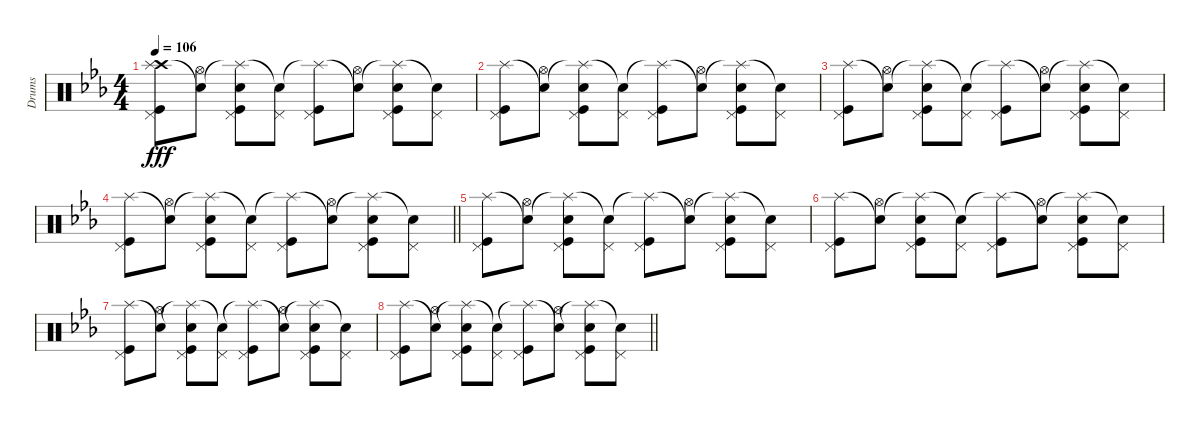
\track ("Drums" "Drums") {instrument percussion}
\staff {score}
\articulation defaults
\ts (4 4)
\tempo 106
\clef neutral
\ks eb
("Crash high (hit)" "Splash (hit)" "Pedal Hi-Hat (hit)" "Kick (hit)").8{dy fff} ("Snare (hit)"{t} "Hi-Hat (open)").8 ("Splash (hit)"{t} "Pedal Hi-Hat (hit)" "Snare (hit) 2" "Kick (hit)").8 ("Snare (hit)"{t} "Pedal Hi-Hat (hit)").8 ("Splash (hit)"{t} "Pedal Hi-Hat (hit)" "Kick (hit)").8 ("Snare (hit)"{t} "Hi-Hat (open)").8 ("Splash (hit)"{t} "Pedal Hi-Hat (hit)" "Snare (hit) 2" "Kick (hit)").8 ("Snare (hit)"{t} "Pedal Hi-Hat (hit)").8 |
("Splash (hit)" "Pedal Hi-Hat (hit)" "Kick (hit)").8 ("Snare (hit)"{t} "Hi-Hat (open)").8 ("Splash (hit)"{t} "Pedal Hi-Hat (hit)" "Snare (hit) 2" "Kick (hit)").8 ("Snare (hit)"{t} "Pedal Hi-Hat (hit)").8 ("Splash (hit)"{t} "Pedal Hi-Hat (hit)" "Kick (hit)").8 ("Snare (hit)"{t} "Hi-Hat (open)").8 ("Splash (hit)"{t} "Pedal Hi-Hat (hit)" "Snare (hit) 2" "Kick (hit)").8 ("Snare (hit)"{t} "Pedal Hi-Hat (hit)").8 |
("Splash (hit)" "Pedal Hi-Hat (hit)" "Kick (hit)").8 ("Snare (hit)"{t} "Hi-Hat (open)").8 ("Splash (hit)"{t} "Pedal Hi-Hat (hit)" "Snare (hit) 2" "Kick (hit)").8 ("Snare (hit)"{t} "Pedal Hi-Hat (hit)").8 ("Splash (hit)"{t} "Pedal Hi-Hat (hit)" "Kick (hit)").8 ("Snare (hit)"{t} "Hi-Hat (open)").8 ("Splash (hit)"{t} "Pedal Hi-Hat (hit)" "Snare (hit) 2" "Kick (hit)").8 ("Snare (hit)"{t} "Pedal Hi-Hat (hit)").8 |
\barLineRight lightlight
("Splash (hit)" "Pedal Hi-Hat (hit)" "Kick (hit)").8 ("Snare (hit)"{t} "Hi-Hat (open)").8 ("Splash (hit)"{t} "Pedal Hi-Hat (hit)" "Snare (hit) 2" "Kick (hit)").8 ("Snare (hit)"{t} "Pedal Hi-Hat (hit)").8 ("Splash (hit)"{t} "Pedal Hi-Hat (hit)" "Kick (hit)").8 ("Snare (hit)"{t} "Hi-Hat (open)").8 ("Splash (hit)"{t} "Pedal Hi-Hat (hit)" "Snare (hit) 2" "Kick (hit)").8 ("Snare (hit)"{t} "Pedal Hi-Hat (hit)").8 |
("Splash (hit)" "Pedal Hi-Hat (hit)" "Kick (hit)").8 ("Snare (hit)"{t} "Hi-Hat (open)").8 ("Splash (hit)"{t} "Pedal Hi-Hat (hit)" "Snare (hit) 2" "Kick (hit)").8 ("Snare (hit)"{t} "Pedal Hi-Hat (hit)").8 ("Splash (hit)"{t} "Pedal Hi-Hat (hit)" "Kick (hit)").8 ("Snare (hit)"{t} "Hi-Hat (open)").8 ("Splash (hit)"{t} "Pedal Hi-Hat (hit)" "Snare (hit) 2" "Kick (hit)").8 ("Snare (hit)"{t} "Pedal Hi-Hat (hit)").8 |
("Splash (hit)" "Pedal Hi-Hat (hit)" "Kick (hit)").8 ("Snare (hit)"{t} "Hi-Hat (open)").8 ("Splash (hit)"{t} "Pedal Hi-Hat (hit)" "Snare (hit) 2" "Kick (hit)").8 ("Snare (hit)"{t} "Pedal Hi-Hat (hit)").8 ("Splash (hit)"{t} "Pedal Hi-Hat (hit)" "Kick (hit)").8 ("Snare (hit)"{t} "Hi-Hat (open)").8 ("Splash (hit)"{t} "Pedal Hi-Hat (hit)" "Snare (hit) 2" "Kick (hit)").8 ("Snare (hit)"{t} "Pedal Hi-Hat (hit)").8 |
("Splash (hit)" "Pedal Hi-Hat (hit)" "Kick (hit)").8 ("Snare (hit)"{t} "Hi-Hat (open)").8 ("Splash (hit)"{t} "Pedal Hi-Hat (hit)" "Snare (hit) 2" "Kick (hit)").8 ("Snare (hit)"{t} "Pedal Hi-Hat (hit)").8 ("Splash (hit)"{t} "Pedal Hi-Hat (hit)" "Kick (hit)").8 ("Snare (hit)"{t} "Hi-Hat (open)").8 ("Splash (hit)"{t} "Pedal Hi-Hat (hit)" "Snare (hit) 2" "Kick (hit)").8 ("Snare (hit)"{t} "Pedal Hi-Hat (hit)").8 |
\barLineRight lightlight
("Splash (hit)" "Pedal Hi-Hat (hit)" "Kick (hit)").8 ("Snare (hit)"{t} "Hi-Hat (open)").8 ("Splash (hit)"{t} "Pedal Hi-Hat (hit)" "Snare (hit) 2" "Kick (hit)").8 ("Snare (hit)"{t} "Pedal Hi-Hat (hit)").8 ("Splash (hit)"{t} "Pedal Hi-Hat (hit)" "Kick (hit)").8 ("Snare (hit)"{t} "Hi-Hat (open)").8 ("Splash (hit)"{t} "Pedal Hi-Hat (hit)" "Snare (hit) 2" "Kick (hit)").8 ("Snare (hit)"{t} "Pedal Hi-Hat (hit)").8
